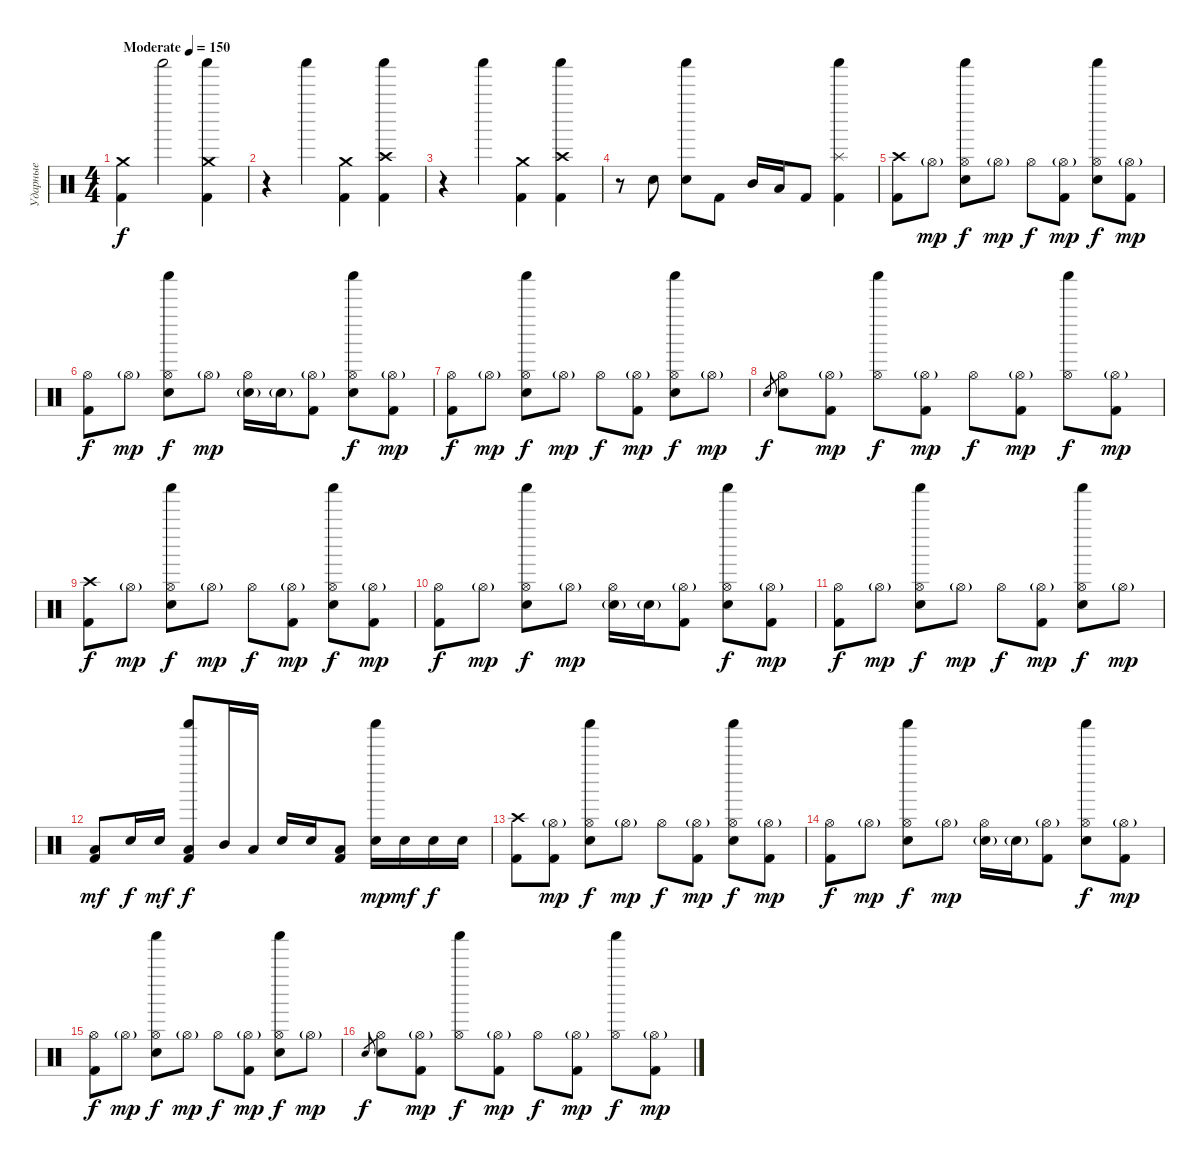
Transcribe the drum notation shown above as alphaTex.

\track ("Ударные" "Ударные") {instrument percussion}
\staff {score}
\articulation defaults
\ts (4 4)
\tempo (150 "Moderate")
\clef neutral
\ks c
("Crash medium (hit)" "Kick (hit) 2").4{dy f} "Shaker (hit)".2 ("Crash medium (hit)" "Shaker (hit)" "Kick (hit) 2").4 |
r.4 "Shaker (hit)".4 ("Crash medium (hit)" "Kick (hit) 2").4 ("Crash high (hit)" "Shaker (hit)" "Kick (hit) 2").4 |
r.4 "Shaker (hit)".4 ("Crash medium (hit)" "Kick (hit) 2").4 ("Crash high (hit)" "Shaker (hit)" "Kick (hit) 2").4 |
r.8 "Snare (hit) 2".8 ("Shaker (hit)" "Snare (hit) 2").8 "Kick (hit) 2".8 "Mid Tom (hit)".16 "Low Tom (hit)".16 "Kick (hit) 2".8 ("Shaker (hit)" "Splash (hit)" "Kick (hit) 2").4 |
("Crash high (hit)" "Kick (hit) 2").8 "Hi-Hat (open)"{g}.8{dy mp} ("Shaker (hit)" "Hi-Hat (open)" "Snare (hit) 2").8{dy f} "Hi-Hat (open)"{g}.8{dy mp} "Hi-Hat (open)".8{dy f} ("Hi-Hat (open)"{g} "Kick (hit) 2").8{dy mp} ("Shaker (hit)" "Hi-Hat (open)" "Snare (hit) 2").8{dy f} ("Hi-Hat (open)"{g} "Kick (hit) 2").8{dy mp} |
("Hi-Hat (open)" "Kick (hit) 2").8{dy f} "Hi-Hat (open)"{g}.8{dy mp} ("Shaker (hit)" "Hi-Hat (open)" "Snare (hit) 2").8{dy f} "Hi-Hat (open)"{g}.8{dy mp} ("Hi-Hat (open)" "Snare (hit) 2"{g}).16 "Snare (hit) 2"{g}.16 ("Hi-Hat (open)"{g} "Kick (hit) 2").8 ("Shaker (hit)" "Hi-Hat (open)" "Snare (hit) 2").8{dy f} ("Hi-Hat (open)"{g} "Kick (hit) 2").8{dy mp} |
("Hi-Hat (open)" "Kick (hit) 2").8{dy f} "Hi-Hat (open)"{g}.8{dy mp} ("Shaker (hit)" "Hi-Hat (open)" "Snare (hit) 2").8{dy f} "Hi-Hat (open)"{g}.8{dy mp} "Hi-Hat (open)".8{dy f} ("Hi-Hat (open)"{g} "Kick (hit) 2").8{dy mp} ("Shaker (hit)" "Hi-Hat (open)" "Snare (hit) 2").8{dy f} "Hi-Hat (open)"{g}.8{dy mp} |
"Snare (hit) 2".8{gr dy f} ("Hi-Hat (open)" "Snare (hit) 2").8 ("Hi-Hat (open)"{g} "Kick (hit) 2").8{dy mp} ("Shaker (hit)" "Hi-Hat (open)").8{dy f} ("Hi-Hat (open)"{g} "Kick (hit) 2").8{dy mp} "Hi-Hat (open)".8{dy f} ("Hi-Hat (open)"{g} "Kick (hit) 2").8{dy mp} ("Shaker (hit)" "Hi-Hat (open)").8{dy f} ("Hi-Hat (open)"{g} "Kick (hit) 2").8{dy mp} |
("Crash high (hit)" "Kick (hit) 2").8{dy f} "Hi-Hat (open)"{g}.8{dy mp} ("Shaker (hit)" "Hi-Hat (open)" "Snare (hit) 2").8{dy f} "Hi-Hat (open)"{g}.8{dy mp} "Hi-Hat (open)".8{dy f} ("Hi-Hat (open)"{g} "Kick (hit) 2").8{dy mp} ("Shaker (hit)" "Hi-Hat (open)" "Snare (hit) 2").8{dy f} ("Hi-Hat (open)"{g} "Kick (hit) 2").8{dy mp} |
("Hi-Hat (open)" "Kick (hit) 2").8{dy f} "Hi-Hat (open)"{g}.8{dy mp} ("Shaker (hit)" "Hi-Hat (open)" "Snare (hit) 2").8{dy f} "Hi-Hat (open)"{g}.8{dy mp} ("Hi-Hat (open)" "Snare (hit) 2"{g}).16 "Snare (hit) 2"{g}.16 ("Hi-Hat (open)"{g} "Kick (hit) 2").8 ("Shaker (hit)" "Hi-Hat (open)" "Snare (hit) 2").8{dy f} ("Hi-Hat (open)"{g} "Kick (hit) 2").8{dy mp} |
("Hi-Hat (open)" "Kick (hit) 2").8{dy f} "Hi-Hat (open)"{g}.8{dy mp} ("Shaker (hit)" "Hi-Hat (open)" "Snare (hit) 2").8{dy f} "Hi-Hat (open)"{g}.8{dy mp} "Hi-Hat (open)".8{dy f} ("Hi-Hat (open)"{g} "Kick (hit) 2").8{dy mp} ("Shaker (hit)" "Hi-Hat (open)" "Snare (hit) 2").8{dy f} "Hi-Hat (open)"{g}.8{dy mp} |
("Low Tom (hit)" "Kick (hit) 2").8{dy mf} "Snare (hit) 2".16{dy f} "Snare (hit) 2".16{dy mf} ("Shaker (hit)" "Low Tom (hit)" "Kick (hit) 2").8{dy f} "Mid Tom (hit)".16 "Low Tom (hit)".16 "Snare (hit) 2".16 "Snare (hit) 2".16 ("Low Tom (hit)" "Kick (hit) 2").8 ("Shaker (hit)" "Snare (hit) 2").16{dy mp} "Snare (hit) 2".16{dy mf} "Snare (hit) 2".16{dy f} "Snare (hit) 2".16 |
("Crash high (hit)" "Kick (hit) 2").8 ("Hi-Hat (open)"{g} "Kick (hit) 2").8{dy mp} ("Shaker (hit)" "Hi-Hat (open)" "Snare (hit) 2").8{dy f} "Hi-Hat (open)"{g}.8{dy mp} "Hi-Hat (open)".8{dy f} ("Hi-Hat (open)"{g} "Kick (hit) 2").8{dy mp} ("Shaker (hit)" "Hi-Hat (open)" "Snare (hit) 2").8{dy f} ("Hi-Hat (open)"{g} "Kick (hit) 2").8{dy mp} |
("Hi-Hat (open)" "Kick (hit) 2").8{dy f} "Hi-Hat (open)"{g}.8{dy mp} ("Shaker (hit)" "Hi-Hat (open)" "Snare (hit) 2").8{dy f} "Hi-Hat (open)"{g}.8{dy mp} ("Hi-Hat (open)" "Snare (hit) 2"{g}).16 "Snare (hit) 2"{g}.16 ("Hi-Hat (open)"{g} "Kick (hit) 2").8 ("Shaker (hit)" "Hi-Hat (open)" "Snare (hit) 2").8{dy f} ("Hi-Hat (open)"{g} "Kick (hit) 2").8{dy mp} |
("Hi-Hat (open)" "Kick (hit) 2").8{dy f} "Hi-Hat (open)"{g}.8{dy mp} ("Shaker (hit)" "Hi-Hat (open)" "Snare (hit) 2").8{dy f} "Hi-Hat (open)"{g}.8{dy mp} "Hi-Hat (open)".8{dy f} ("Hi-Hat (open)"{g} "Kick (hit) 2").8{dy mp} ("Shaker (hit)" "Hi-Hat (open)" "Snare (hit) 2").8{dy f} "Hi-Hat (open)"{g}.8{dy mp} |
"Snare (hit) 2".8{gr dy f} ("Hi-Hat (open)" "Snare (hit) 2").8 ("Hi-Hat (open)"{g} "Kick (hit) 2").8{dy mp} ("Shaker (hit)" "Hi-Hat (open)").8{dy f} ("Hi-Hat (open)"{g} "Kick (hit) 2").8{dy mp} "Hi-Hat (open)".8{dy f} ("Hi-Hat (open)"{g} "Kick (hit) 2").8{dy mp} ("Shaker (hit)" "Hi-Hat (open)").8{dy f} ("Hi-Hat (open)"{g} "Kick (hit) 2").8{dy mp}
